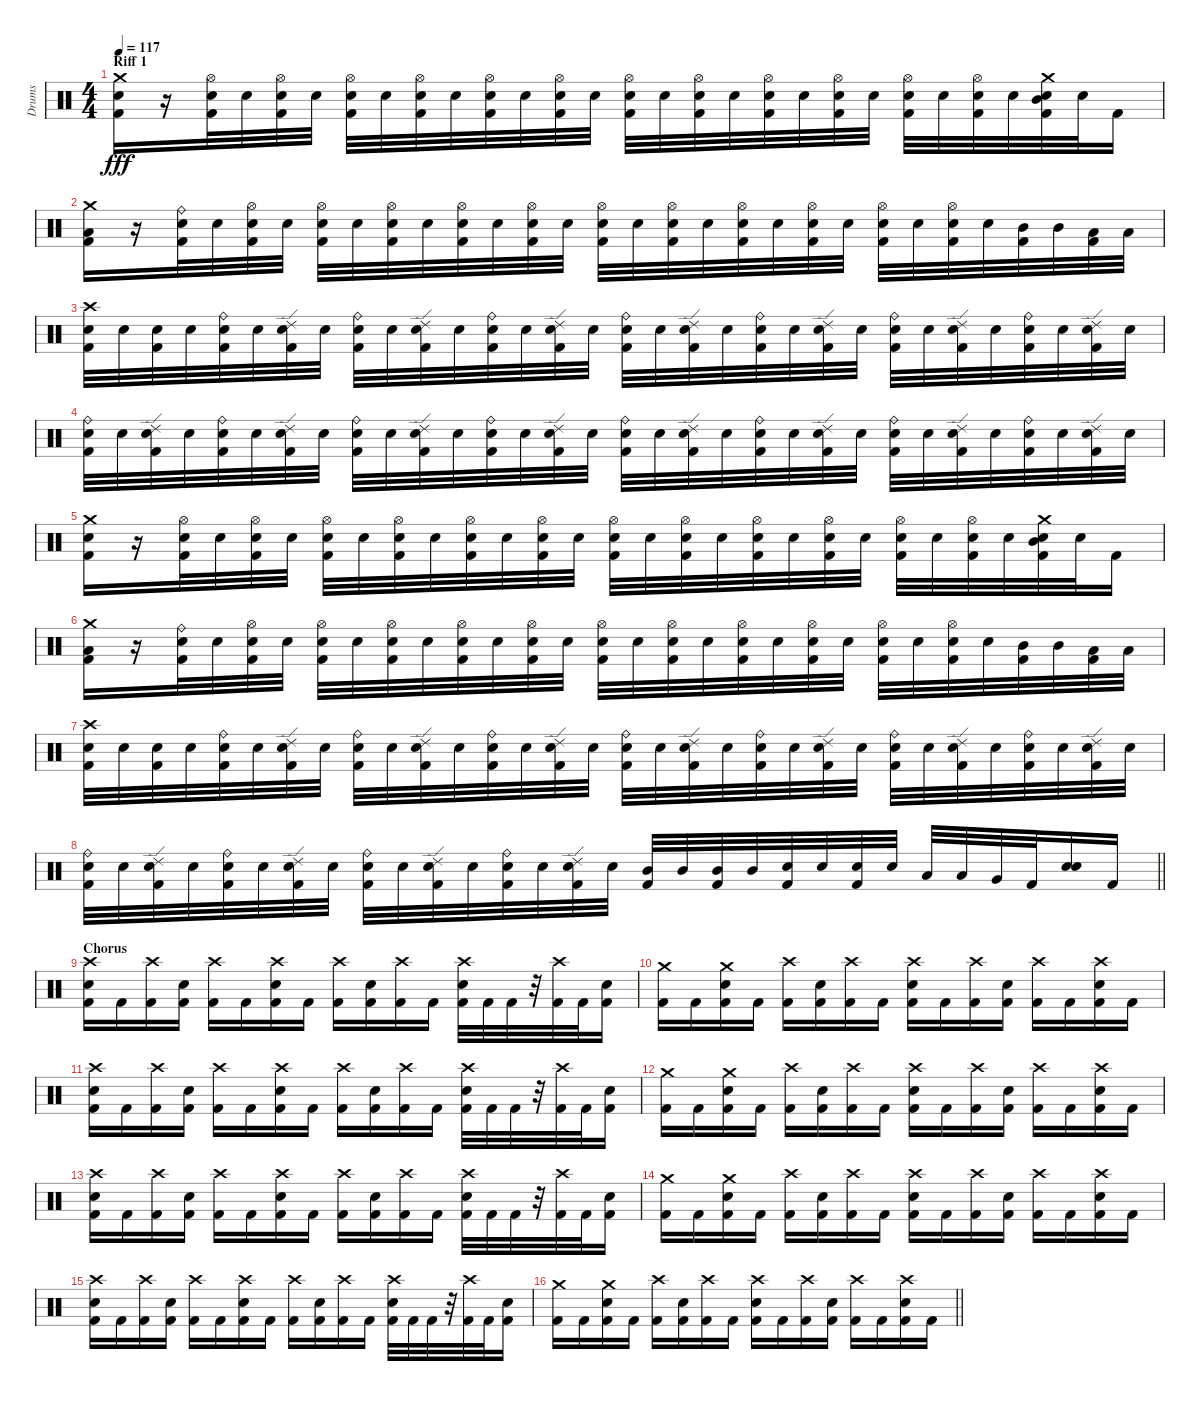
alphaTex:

\track ("Drums" "Drums") {instrument percussion}
\staff {score}
\articulation defaults
\ts (4 4)
\section ("" "Riff 1")
\tempo 117
\clef neutral
\ks c
("Kick (hit) 2" "Snare (hit) 2" "Crash medium (hit)").16{dy fff} r.16 ("Kick (hit) 2" "Snare (hit) 2" "Hi-Hat (open)").32 "Snare (hit) 2".32 ("Kick (hit) 2" "Snare (hit) 2" "Hi-Hat (open)").32 "Snare (hit) 2".32 ("Kick (hit) 2" "Snare (hit) 2" "Hi-Hat (open)").32 "Snare (hit) 2".32 ("Kick (hit) 2" "Snare (hit) 2" "Hi-Hat (open)").32 "Snare (hit) 2".32 ("Kick (hit) 2" "Snare (hit) 2" "Hi-Hat (open)").32 "Snare (hit) 2".32 ("Kick (hit) 2" "Snare (hit) 2" "Hi-Hat (open)").32 "Snare (hit) 2".32 ("Kick (hit) 2" "Snare (hit) 2" "Hi-Hat (open)").32 "Snare (hit) 2".32 ("Kick (hit) 2" "Snare (hit) 2" "Hi-Hat (open)").32 "Snare (hit) 2".32 ("Kick (hit) 2" "Snare (hit) 2" "Hi-Hat (open)").32 "Snare (hit) 2".32 ("Kick (hit) 2" "Snare (hit) 2" "Hi-Hat (open)").32 "Snare (hit) 2".32 ("Kick (hit) 2" "Snare (hit) 2" "Hi-Hat (open)").32 "Snare (hit) 2".32 ("Kick (hit) 2" "Snare (hit) 2" "Hi-Hat (open)").32 "Snare (hit) 2".32 ("Kick (hit) 2" "Snare (hit) 2" "Mid Tom (hit)" "Crash medium (hit)").32 "Snare (hit) 2".32 "Kick (hit) 2".16 |
("Kick (hit) 2" "Low Tom (hit)" "Crash medium (hit)").16 r.16 ("Kick (hit) 2" "Snare (hit) 2" "Ride (bell)").32 "Snare (hit) 2".32 ("Kick (hit) 2" "Snare (hit) 2" "Hi-Hat (open)").32 "Snare (hit) 2".32 ("Kick (hit) 2" "Snare (hit) 2" "Hi-Hat (open)").32 "Snare (hit) 2".32 ("Kick (hit) 2" "Snare (hit) 2" "Hi-Hat (open)").32 "Snare (hit) 2".32 ("Kick (hit) 2" "Snare (hit) 2" "Hi-Hat (open)").32 "Snare (hit) 2".32 ("Kick (hit) 2" "Snare (hit) 2" "Hi-Hat (open)").32 "Snare (hit) 2".32 ("Kick (hit) 2" "Snare (hit) 2" "Hi-Hat (open)").32 "Snare (hit) 2".32 ("Kick (hit) 2" "Snare (hit) 2" "Hi-Hat (open)").32 "Snare (hit) 2".32 ("Kick (hit) 2" "Snare (hit) 2" "Hi-Hat (open)").32 "Snare (hit) 2".32 ("Kick (hit) 2" "Snare (hit) 2" "Hi-Hat (open)").32 "Snare (hit) 2".32 ("Kick (hit) 2" "Snare (hit) 2" "Hi-Hat (open)").32 "Snare (hit) 2".32 ("Kick (hit) 2" "Snare (hit) 2" "Hi-Hat (open)").32 "Snare (hit) 2".32 ("Kick (hit) 2" "Mid Tom (hit)").32 "Mid Tom (hit)".32 ("Kick (hit) 2" "Low Tom (hit)").32 "Low Tom (hit)".32 |
("Kick (hit) 2" "Snare (hit) 2" "Crash high (hit)").32 "Snare (hit) 2".32 ("Kick (hit) 2" "Snare (hit) 2").32 "Snare (hit) 2".32 ("Kick (hit) 2" "Snare (hit) 2" "Ride (bell)").32 "Snare (hit) 2".32 ("Kick (hit) 2" "Snare (hit) 2" "Ride (edge) 2").32 "Snare (hit) 2".32 ("Kick (hit) 2" "Snare (hit) 2" "Ride (bell)").32 "Snare (hit) 2".32 ("Kick (hit) 2" "Snare (hit) 2" "Ride (edge) 2").32 "Snare (hit) 2".32 ("Kick (hit) 2" "Snare (hit) 2" "Ride (bell)").32 "Snare (hit) 2".32 ("Kick (hit) 2" "Snare (hit) 2" "Ride (edge) 2").32 "Snare (hit) 2".32 ("Kick (hit) 2" "Snare (hit) 2" "Ride (bell)").32 "Snare (hit) 2".32 ("Kick (hit) 2" "Snare (hit) 2" "Ride (edge) 2").32 "Snare (hit) 2".32 ("Kick (hit) 2" "Snare (hit) 2" "Ride (bell)").32 "Snare (hit) 2".32 ("Kick (hit) 2" "Snare (hit) 2" "Ride (edge) 2").32 "Snare (hit) 2".32 ("Kick (hit) 2" "Snare (hit) 2" "Ride (bell)").32 "Snare (hit) 2".32 ("Kick (hit) 2" "Snare (hit) 2" "Ride (edge) 2").32 "Snare (hit) 2".32 ("Kick (hit) 2" "Snare (hit) 2" "Ride (bell)").32 "Snare (hit) 2".32 ("Kick (hit) 2" "Snare (hit) 2" "Ride (edge) 2").32 "Snare (hit) 2".32 |
("Kick (hit) 2" "Snare (hit) 2" "Ride (bell)").32 "Snare (hit) 2".32 ("Kick (hit) 2" "Snare (hit) 2" "Ride (edge) 2").32 "Snare (hit) 2".32 ("Kick (hit) 2" "Snare (hit) 2" "Ride (bell)").32 "Snare (hit) 2".32 ("Kick (hit) 2" "Snare (hit) 2" "Ride (edge) 2").32 "Snare (hit) 2".32 ("Kick (hit) 2" "Snare (hit) 2" "Ride (bell)").32 "Snare (hit) 2".32 ("Kick (hit) 2" "Snare (hit) 2" "Ride (edge) 2").32 "Snare (hit) 2".32 ("Kick (hit) 2" "Snare (hit) 2" "Ride (bell)").32 "Snare (hit) 2".32 ("Kick (hit) 2" "Snare (hit) 2" "Ride (edge) 2").32 "Snare (hit) 2".32 ("Kick (hit) 2" "Snare (hit) 2" "Ride (bell)").32 "Snare (hit) 2".32 ("Kick (hit) 2" "Snare (hit) 2" "Ride (edge) 2").32 "Snare (hit) 2".32 ("Kick (hit) 2" "Snare (hit) 2" "Ride (bell)").32 "Snare (hit) 2".32 ("Kick (hit) 2" "Snare (hit) 2" "Ride (edge) 2").32 "Snare (hit) 2".32 ("Kick (hit) 2" "Snare (hit) 2" "Ride (bell)").32 "Snare (hit) 2".32 ("Kick (hit) 2" "Snare (hit) 2" "Ride (edge) 2").32 "Snare (hit) 2".32 ("Kick (hit) 2" "Snare (hit) 2" "Ride (bell)").32 "Snare (hit) 2".32 ("Kick (hit) 2" "Snare (hit) 2" "Ride (edge) 2").32 "Snare (hit) 2".32 |
("Kick (hit) 2" "Snare (hit) 2" "Crash medium (hit)").16 r.16 ("Kick (hit) 2" "Snare (hit) 2" "Hi-Hat (open)").32 "Snare (hit) 2".32 ("Kick (hit) 2" "Snare (hit) 2" "Hi-Hat (open)").32 "Snare (hit) 2".32 ("Kick (hit) 2" "Snare (hit) 2" "Hi-Hat (open)").32 "Snare (hit) 2".32 ("Kick (hit) 2" "Snare (hit) 2" "Hi-Hat (open)").32 "Snare (hit) 2".32 ("Kick (hit) 2" "Snare (hit) 2" "Hi-Hat (open)").32 "Snare (hit) 2".32 ("Kick (hit) 2" "Snare (hit) 2" "Hi-Hat (open)").32 "Snare (hit) 2".32 ("Kick (hit) 2" "Snare (hit) 2" "Hi-Hat (open)").32 "Snare (hit) 2".32 ("Kick (hit) 2" "Snare (hit) 2" "Hi-Hat (open)").32 "Snare (hit) 2".32 ("Kick (hit) 2" "Snare (hit) 2" "Hi-Hat (open)").32 "Snare (hit) 2".32 ("Kick (hit) 2" "Snare (hit) 2" "Hi-Hat (open)").32 "Snare (hit) 2".32 ("Kick (hit) 2" "Snare (hit) 2" "Hi-Hat (open)").32 "Snare (hit) 2".32 ("Kick (hit) 2" "Snare (hit) 2" "Hi-Hat (open)").32 "Snare (hit) 2".32 ("Kick (hit) 2" "Snare (hit) 2" "Mid Tom (hit)" "Crash medium (hit)").32 "Snare (hit) 2".32 "Kick (hit) 2".16 |
("Kick (hit) 2" "Low Tom (hit)" "Crash medium (hit)").16 r.16 ("Kick (hit) 2" "Snare (hit) 2" "Ride (bell)").32 "Snare (hit) 2".32 ("Kick (hit) 2" "Snare (hit) 2" "Hi-Hat (open)").32 "Snare (hit) 2".32 ("Kick (hit) 2" "Snare (hit) 2" "Hi-Hat (open)").32 "Snare (hit) 2".32 ("Kick (hit) 2" "Snare (hit) 2" "Hi-Hat (open)").32 "Snare (hit) 2".32 ("Kick (hit) 2" "Snare (hit) 2" "Hi-Hat (open)").32 "Snare (hit) 2".32 ("Kick (hit) 2" "Snare (hit) 2" "Hi-Hat (open)").32 "Snare (hit) 2".32 ("Kick (hit) 2" "Snare (hit) 2" "Hi-Hat (open)").32 "Snare (hit) 2".32 ("Kick (hit) 2" "Snare (hit) 2" "Hi-Hat (open)").32 "Snare (hit) 2".32 ("Kick (hit) 2" "Snare (hit) 2" "Hi-Hat (open)").32 "Snare (hit) 2".32 ("Kick (hit) 2" "Snare (hit) 2" "Hi-Hat (open)").32 "Snare (hit) 2".32 ("Kick (hit) 2" "Snare (hit) 2" "Hi-Hat (open)").32 "Snare (hit) 2".32 ("Kick (hit) 2" "Snare (hit) 2" "Hi-Hat (open)").32 "Snare (hit) 2".32 ("Kick (hit) 2" "Mid Tom (hit)").32 "Mid Tom (hit)".32 ("Kick (hit) 2" "Low Tom (hit)").32 "Low Tom (hit)".32 |
("Kick (hit) 2" "Snare (hit) 2" "Crash high (hit)").32 "Snare (hit) 2".32 ("Kick (hit) 2" "Snare (hit) 2").32 "Snare (hit) 2".32 ("Kick (hit) 2" "Snare (hit) 2" "Ride (bell)").32 "Snare (hit) 2".32 ("Kick (hit) 2" "Snare (hit) 2" "Ride (edge) 2").32 "Snare (hit) 2".32 ("Kick (hit) 2" "Snare (hit) 2" "Ride (bell)").32 "Snare (hit) 2".32 ("Kick (hit) 2" "Snare (hit) 2" "Ride (edge) 2").32 "Snare (hit) 2".32 ("Kick (hit) 2" "Snare (hit) 2" "Ride (bell)").32 "Snare (hit) 2".32 ("Kick (hit) 2" "Snare (hit) 2" "Ride (edge) 2").32 "Snare (hit) 2".32 ("Kick (hit) 2" "Snare (hit) 2" "Ride (bell)").32 "Snare (hit) 2".32 ("Kick (hit) 2" "Snare (hit) 2" "Ride (edge) 2").32 "Snare (hit) 2".32 ("Kick (hit) 2" "Snare (hit) 2" "Ride (bell)").32 "Snare (hit) 2".32 ("Kick (hit) 2" "Snare (hit) 2" "Ride (edge) 2").32 "Snare (hit) 2".32 ("Kick (hit) 2" "Snare (hit) 2" "Ride (bell)").32 "Snare (hit) 2".32 ("Kick (hit) 2" "Snare (hit) 2" "Ride (edge) 2").32 "Snare (hit) 2".32 ("Kick (hit) 2" "Snare (hit) 2" "Ride (bell)").32 "Snare (hit) 2".32 ("Kick (hit) 2" "Snare (hit) 2" "Ride (edge) 2").32 "Snare (hit) 2".32 |
\barLineRight lightlight
("Kick (hit) 2" "Snare (hit) 2" "Ride (bell)").32 "Snare (hit) 2".32 ("Kick (hit) 2" "Snare (hit) 2" "Ride (edge) 2").32 "Snare (hit) 2".32 ("Kick (hit) 2" "Snare (hit) 2" "Ride (bell)").32 "Snare (hit) 2".32 ("Kick (hit) 2" "Snare (hit) 2" "Ride (edge) 2").32 "Snare (hit) 2".32 ("Kick (hit) 2" "Snare (hit) 2" "Ride (bell)").32 "Snare (hit) 2".32 ("Kick (hit) 2" "Snare (hit) 2" "Ride (edge) 2").32 "Snare (hit) 2".32 ("Kick (hit) 2" "Snare (hit) 2" "Ride (bell)").32 "Snare (hit) 2".32 ("Kick (hit) 2" "Snare (hit) 2" "Ride (edge) 2").32 "Snare (hit) 2".32 ("Kick (hit) 2" "Mid Tom (hit)").32 "Mid Tom (hit)".32 ("Kick (hit) 2" "Mid Tom (hit)").32 "Mid Tom (hit)".32 ("Kick (hit) 2" "Snare (hit) 2").32 "Snare (hit) 2".32 ("Kick (hit) 2" "Snare (hit) 2").32 "Snare (hit) 2".32 "Low Tom (hit)".32 "Low Tom (hit)".32 "Very Low Tom (hit)".32 "Kick (hit) 2".32 ("Snare (hit) 2" "Snare (hit) 2").16 "Kick (hit) 2".16 |
\section ("" "Chorus")
("Kick (hit) 2" "Snare (hit) 2" "Crash high (hit)").16 "Kick (hit) 2".16 ("Kick (hit) 2" "Crash high (hit)").16 ("Kick (hit) 2" "Snare (hit) 2").16 ("Kick (hit) 2" "Crash high (hit)").16 "Kick (hit) 2".16 ("Kick (hit) 2" "Snare (hit) 2" "Crash high (hit)").16 "Kick (hit) 2".16 ("Kick (hit) 2" "Crash high (hit)").16 ("Kick (hit) 2" "Snare (hit) 2").16 ("Kick (hit) 2" "Crash high (hit)").16 "Kick (hit) 2".16 ("Kick (hit) 2" "Snare (hit) 2" "Crash high (hit)").32 "Kick (hit) 2".32 "Kick (hit) 2".32 r.32 ("Kick (hit) 2" "Crash high (hit)").32 "Kick (hit) 2".32 ("Kick (hit) 2" "Snare (hit) 2").16 |
("Kick (hit) 2" "Crash medium (hit)").16 "Kick (hit) 2".16 ("Kick (hit) 2" "Snare (hit) 2" "Crash medium (hit)").16 "Kick (hit) 2".16 ("Kick (hit) 2" "Crash high (hit)").16 ("Kick (hit) 2" "Snare (hit) 2").16 ("Kick (hit) 2" "Crash high (hit)").16 "Kick (hit) 2".16 ("Kick (hit) 2" "Snare (hit) 2" "Crash high (hit)").16 "Kick (hit) 2".16 ("Kick (hit) 2" "Crash high (hit)").16 ("Kick (hit) 2" "Snare (hit) 2").16 ("Kick (hit) 2" "Crash high (hit)").16 "Kick (hit) 2".16 ("Kick (hit) 2" "Snare (hit) 2" "Crash high (hit)").16 "Kick (hit) 2".16 |
("Kick (hit) 2" "Snare (hit) 2" "Crash high (hit)").16 "Kick (hit) 2".16 ("Kick (hit) 2" "Crash high (hit)").16 ("Kick (hit) 2" "Snare (hit) 2").16 ("Kick (hit) 2" "Crash high (hit)").16 "Kick (hit) 2".16 ("Kick (hit) 2" "Snare (hit) 2" "Crash high (hit)").16 "Kick (hit) 2".16 ("Kick (hit) 2" "Crash high (hit)").16 ("Kick (hit) 2" "Snare (hit) 2").16 ("Kick (hit) 2" "Crash high (hit)").16 "Kick (hit) 2".16 ("Kick (hit) 2" "Snare (hit) 2" "Crash high (hit)").32 "Kick (hit) 2".32 "Kick (hit) 2".32 r.32 ("Kick (hit) 2" "Crash high (hit)").32 "Kick (hit) 2".32 ("Kick (hit) 2" "Snare (hit) 2").16 |
("Kick (hit) 2" "Crash medium (hit)").16 "Kick (hit) 2".16 ("Kick (hit) 2" "Snare (hit) 2" "Crash medium (hit)").16 "Kick (hit) 2".16 ("Kick (hit) 2" "Crash high (hit)").16 ("Kick (hit) 2" "Snare (hit) 2").16 ("Kick (hit) 2" "Crash high (hit)").16 "Kick (hit) 2".16 ("Kick (hit) 2" "Snare (hit) 2" "Crash high (hit)").16 "Kick (hit) 2".16 ("Kick (hit) 2" "Crash high (hit)").16 ("Kick (hit) 2" "Snare (hit) 2").16 ("Kick (hit) 2" "Crash high (hit)").16 "Kick (hit) 2".16 ("Kick (hit) 2" "Snare (hit) 2" "Crash high (hit)").16 "Kick (hit) 2".16 |
("Kick (hit) 2" "Snare (hit) 2" "Crash high (hit)").16 "Kick (hit) 2".16 ("Kick (hit) 2" "Crash high (hit)").16 ("Kick (hit) 2" "Snare (hit) 2").16 ("Kick (hit) 2" "Crash high (hit)").16 "Kick (hit) 2".16 ("Kick (hit) 2" "Snare (hit) 2" "Crash high (hit)").16 "Kick (hit) 2".16 ("Kick (hit) 2" "Crash high (hit)").16 ("Kick (hit) 2" "Snare (hit) 2").16 ("Kick (hit) 2" "Crash high (hit)").16 "Kick (hit) 2".16 ("Kick (hit) 2" "Snare (hit) 2" "Crash high (hit)").32 "Kick (hit) 2".32 "Kick (hit) 2".32 r.32 ("Kick (hit) 2" "Crash high (hit)").32 "Kick (hit) 2".32 ("Kick (hit) 2" "Snare (hit) 2").16 |
("Kick (hit) 2" "Crash medium (hit)").16 "Kick (hit) 2".16 ("Kick (hit) 2" "Snare (hit) 2" "Crash medium (hit)").16 "Kick (hit) 2".16 ("Kick (hit) 2" "Crash high (hit)").16 ("Kick (hit) 2" "Snare (hit) 2").16 ("Kick (hit) 2" "Crash high (hit)").16 "Kick (hit) 2".16 ("Kick (hit) 2" "Snare (hit) 2" "Crash high (hit)").16 "Kick (hit) 2".16 ("Kick (hit) 2" "Crash high (hit)").16 ("Kick (hit) 2" "Snare (hit) 2").16 ("Kick (hit) 2" "Crash high (hit)").16 "Kick (hit) 2".16 ("Kick (hit) 2" "Snare (hit) 2" "Crash high (hit)").16 "Kick (hit) 2".16 |
("Kick (hit) 2" "Snare (hit) 2" "Crash high (hit)").16 "Kick (hit) 2".16 ("Kick (hit) 2" "Crash high (hit)").16 ("Kick (hit) 2" "Snare (hit) 2").16 ("Kick (hit) 2" "Crash high (hit)").16 "Kick (hit) 2".16 ("Kick (hit) 2" "Snare (hit) 2" "Crash high (hit)").16 "Kick (hit) 2".16 ("Kick (hit) 2" "Crash high (hit)").16 ("Kick (hit) 2" "Snare (hit) 2").16 ("Kick (hit) 2" "Crash high (hit)").16 "Kick (hit) 2".16 ("Kick (hit) 2" "Snare (hit) 2" "Crash high (hit)").32 "Kick (hit) 2".32 "Kick (hit) 2".32 r.32 ("Kick (hit) 2" "Crash high (hit)").32 "Kick (hit) 2".32 ("Kick (hit) 2" "Snare (hit) 2").16 |
\barLineRight lightlight
("Kick (hit) 2" "Crash medium (hit)").16 "Kick (hit) 2".16 ("Kick (hit) 2" "Snare (hit) 2" "Crash medium (hit)").16 "Kick (hit) 2".16 ("Kick (hit) 2" "Crash high (hit)").16 ("Kick (hit) 2" "Snare (hit) 2").16 ("Kick (hit) 2" "Crash high (hit)").16 "Kick (hit) 2".16 ("Kick (hit) 2" "Snare (hit) 2" "Crash high (hit)").16 "Kick (hit) 2".16 ("Kick (hit) 2" "Crash high (hit)").16 ("Kick (hit) 2" "Snare (hit) 2").16 ("Kick (hit) 2" "Crash high (hit)").16 "Kick (hit) 2".16 ("Kick (hit) 2" "Snare (hit) 2" "Crash high (hit)").16 "Kick (hit) 2".16
